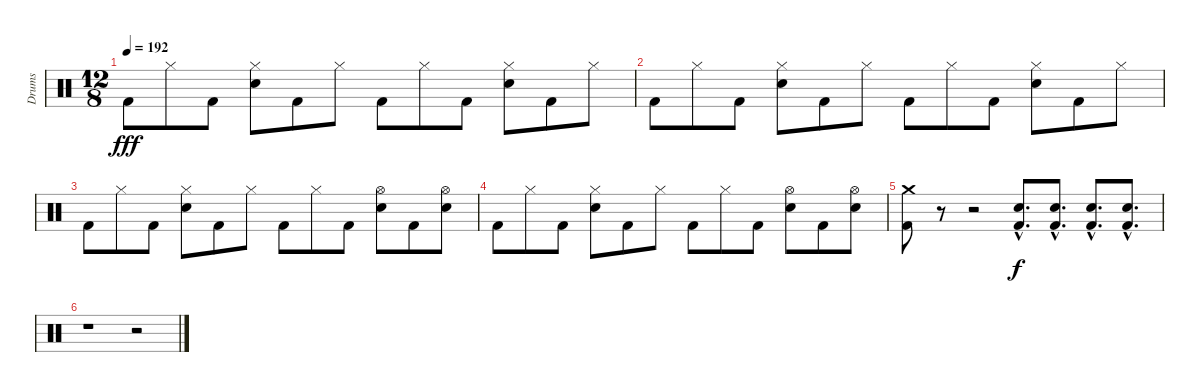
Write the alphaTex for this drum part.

\track ("Drums" "Drums") {instrument percussion}
\staff {score}
\articulation defaults
\ts (12 8)
\tempo 192
\clef neutral
\ks c "Kick (hit) 2".8{dy fff} "Hi-Hat (closed)".8 "Kick (hit) 2".8
("Hi-Hat (closed)" "Electric Snare (hit)").8 "Kick (hit) 2".8 "Hi-Hat (closed)".8 "Kick (hit) 2".8 "Hi-Hat (closed)".8 "Kick (hit) 2".8 ("Hi-Hat (closed)" "Electric Snare (hit)").8 "Kick (hit) 2".8 "Hi-Hat (closed)".8 |
"Kick (hit) 2".8 "Hi-Hat (closed)".8 "Kick (hit) 2".8 ("Hi-Hat (closed)" "Electric Snare (hit)").8 "Kick (hit) 2".8 "Hi-Hat (closed)".8 "Kick (hit) 2".8 "Hi-Hat (closed)".8 "Kick (hit) 2".8 ("Hi-Hat (closed)" "Electric Snare (hit)").8 "Kick (hit) 2".8 "Hi-Hat (closed)".8 |
"Kick (hit) 2".8 "Hi-Hat (closed)".8 "Kick (hit) 2".8 ("Hi-Hat (closed)" "Electric Snare (hit)").8 "Kick (hit) 2".8 "Hi-Hat (closed)".8 "Kick (hit) 2".8 "Hi-Hat (closed)".8 "Kick (hit) 2".8 ("Hi-Hat (open)" "Electric Snare (hit)").8 "Kick (hit) 2".8 ("Hi-Hat (open)" "Electric Snare (hit)").8 |
"Kick (hit) 2".8 "Hi-Hat (closed)".8 "Kick (hit) 2".8 ("Hi-Hat (closed)" "Electric Snare (hit)").8 "Kick (hit) 2".8 "Hi-Hat (closed)".8 "Kick (hit) 2".8 "Hi-Hat (closed)".8 "Kick (hit) 2".8 ("Hi-Hat (open)" "Electric Snare (hit)").8 "Kick (hit) 2".8 ("Hi-Hat (open)" "Electric Snare (hit)").8 |
("Crash medium (hit)" "Kick (hit) 2").8 r.8 r.2 ("Electric Snare (hit)"{hac} "Kick (hit) 2"{hac}).8{d dy f} ("Electric Snare (hit)"{hac} "Kick (hit) 2"{hac}).8{d} ("Electric Snare (hit)"{hac} "Kick (hit) 2"{hac}).8{d} ("Electric Snare (hit)"{hac} "Kick (hit) 2"{hac}).8{d} |
r.1 r.2
